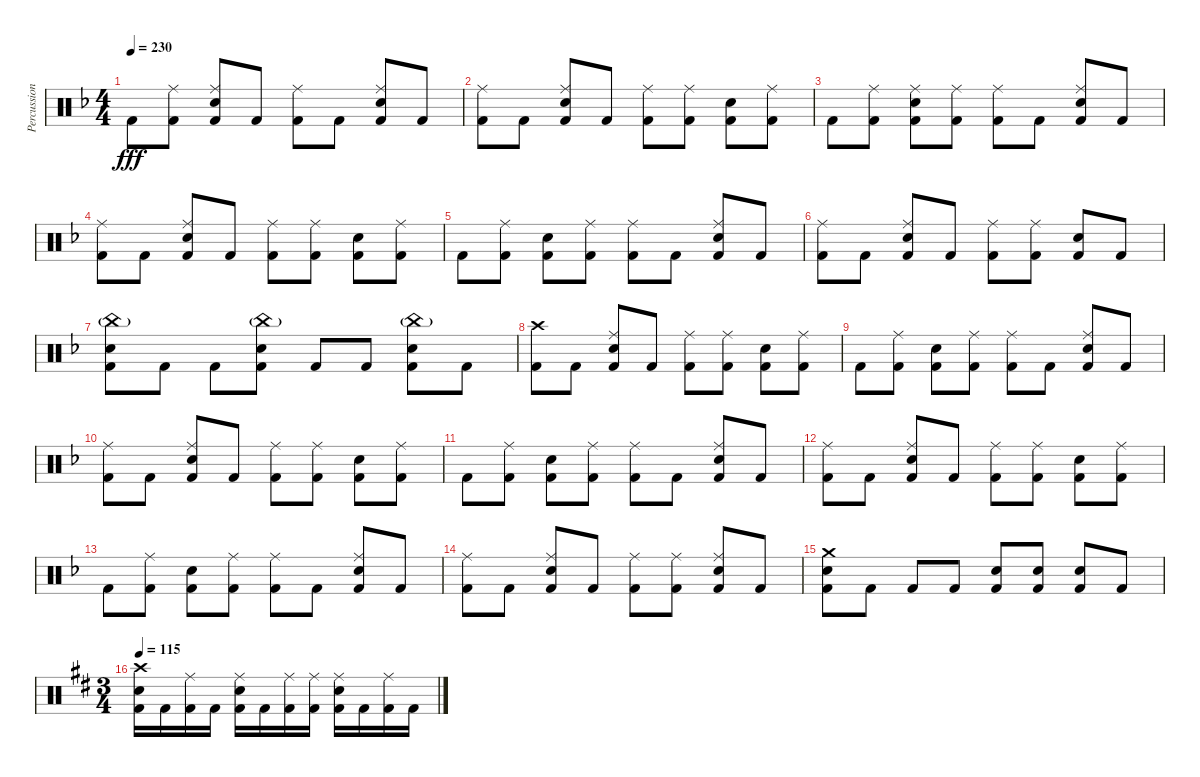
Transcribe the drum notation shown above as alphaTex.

\track ("Percussion" "Percussion") {instrument percussion}
\staff {score}
\articulation defaults
\ts (4 4)
\tempo 230
\clef neutral
\ks dminor "Kick (hit) 2".8{dy fff}
("Ride (middle)" "Kick (hit) 2").8 ("Ride (middle)" "Electric Snare (hit)" "Kick (hit) 2").8 "Kick (hit) 2".8 ("Ride (middle)" "Kick (hit) 2").8 "Kick (hit) 2".8 ("Ride (middle)" "Electric Snare (hit)" "Kick (hit) 2").8 "Kick (hit) 2".8 |
("Ride (middle)" "Kick (hit) 2").8 "Kick (hit) 2".8 ("Ride (middle)" "Electric Snare (hit)" "Kick (hit) 2").8 "Kick (hit) 2".8 ("Ride (middle)" "Kick (hit) 2").8 ("Ride (middle)" "Kick (hit) 2").8 ("Electric Snare (hit)" "Kick (hit) 2").8 ("Ride (middle)" "Kick (hit) 2").8 |
"Kick (hit) 2".8 ("Ride (middle)" "Kick (hit) 2").8 ("Ride (middle)" "Electric Snare (hit)" "Kick (hit) 2").8 ("Ride (middle)" "Kick (hit) 2").8 ("Ride (middle)" "Kick (hit) 2").8 "Kick (hit) 2".8 ("Ride (middle)" "Electric Snare (hit)" "Kick (hit) 2").8 "Kick (hit) 2".8 |
("Ride (middle)" "Kick (hit) 2").8 "Kick (hit) 2".8 ("Ride (middle)" "Electric Snare (hit)" "Kick (hit) 2").8 "Kick (hit) 2".8 ("Ride (middle)" "Kick (hit) 2").8 ("Ride (middle)" "Kick (hit) 2").8 ("Electric Snare (hit)" "Kick (hit) 2").8 ("Ride (middle)" "Kick (hit) 2").8 |
"Kick (hit) 2".8 ("Ride (middle)" "Kick (hit) 2").8 ("Electric Snare (hit)" "Kick (hit) 2").8 ("Ride (middle)" "Kick (hit) 2").8 ("Ride (middle)" "Kick (hit) 2").8 "Kick (hit) 2".8 ("Ride (middle)" "Electric Snare (hit)" "Kick (hit) 2").8 "Kick (hit) 2".8 |
("Ride (middle)" "Kick (hit) 2").8 "Kick (hit) 2".8 ("Ride (middle)" "Electric Snare (hit)" "Kick (hit) 2").8 "Kick (hit) 2".8 ("Ride (middle)" "Kick (hit) 2").8 ("Ride (middle)" "Kick (hit) 2").8 ("Electric Snare (hit)" "Kick (hit) 2").8 "Kick (hit) 2".8 |
("China (hit)"{g} "Electric Snare (hit)" "Kick (hit) 2").8 "Kick (hit) 2".8 "Kick (hit) 2".8 ("China (hit)"{g} "Electric Snare (hit)" "Kick (hit) 2").8 "Kick (hit) 2".8 "Kick (hit) 2".8 ("China (hit)"{g} "Electric Snare (hit)" "Kick (hit) 2").8 "Kick (hit) 2".8 |
("Crash high (hit)" "Kick (hit) 2").8 "Kick (hit) 2".8 ("Ride (middle)" "Electric Snare (hit)" "Kick (hit) 2").8 "Kick (hit) 2".8 ("Ride (middle)" "Kick (hit) 2").8 ("Ride (middle)" "Kick (hit) 2").8 ("Electric Snare (hit)" "Kick (hit) 2").8 ("Ride (middle)" "Kick (hit) 2").8 |
"Kick (hit) 2".8 ("Ride (middle)" "Kick (hit) 2").8 ("Electric Snare (hit)" "Kick (hit) 2").8 ("Ride (middle)" "Kick (hit) 2").8 ("Ride (middle)" "Kick (hit) 2").8 "Kick (hit) 2".8 ("Ride (middle)" "Electric Snare (hit)" "Kick (hit) 2").8 "Kick (hit) 2".8 |
("Ride (middle)" "Kick (hit) 2").8 "Kick (hit) 2".8 ("Ride (middle)" "Electric Snare (hit)" "Kick (hit) 2").8 "Kick (hit) 2".8 ("Ride (middle)" "Kick (hit) 2").8 ("Ride (middle)" "Kick (hit) 2").8 ("Electric Snare (hit)" "Kick (hit) 2").8 ("Ride (middle)" "Kick (hit) 2").8 |
"Kick (hit) 2".8 ("Ride (middle)" "Kick (hit) 2").8 ("Electric Snare (hit)" "Kick (hit) 2").8 ("Ride (middle)" "Kick (hit) 2").8 ("Ride (middle)" "Kick (hit) 2").8 "Kick (hit) 2".8 ("Ride (middle)" "Electric Snare (hit)" "Kick (hit) 2").8 "Kick (hit) 2".8 |
("Ride (middle)" "Kick (hit) 2").8 "Kick (hit) 2".8 ("Ride (middle)" "Electric Snare (hit)" "Kick (hit) 2").8 "Kick (hit) 2".8 ("Ride (middle)" "Kick (hit) 2").8 ("Ride (middle)" "Kick (hit) 2").8 ("Electric Snare (hit)" "Kick (hit) 2").8 ("Ride (middle)" "Kick (hit) 2").8 |
"Kick (hit) 2".8 ("Ride (middle)" "Kick (hit) 2").8 ("Electric Snare (hit)" "Kick (hit) 2").8 ("Ride (middle)" "Kick (hit) 2").8 ("Ride (middle)" "Kick (hit) 2").8 "Kick (hit) 2".8 ("Ride (middle)" "Electric Snare (hit)" "Kick (hit) 2").8 "Kick (hit) 2".8 |
("Ride (middle)" "Kick (hit) 2").8 "Kick (hit) 2".8 ("Ride (middle)" "Electric Snare (hit)" "Kick (hit) 2").8 "Kick (hit) 2".8 ("Ride (middle)" "Kick (hit) 2").8 ("Ride (middle)" "Kick (hit) 2").8 ("Ride (middle)" "Electric Snare (hit)" "Kick (hit) 2").8 "Kick (hit) 2".8 |
("Crash medium (hit)" "Electric Snare (hit)" "Kick (hit) 2").8 "Kick (hit) 2".8 "Kick (hit) 2".8 "Kick (hit) 2".8 ("Electric Snare (hit)" "Kick (hit) 2").8 ("Electric Snare (hit)" "Kick (hit) 2").8 ("Electric Snare (hit)" "Kick (hit) 2").8 "Kick (hit) 2".8 |
\ts (3 4)
\tempo 115
\ks bminor
("Crash high (hit)" "Electric Snare (hit)" "Kick (hit) 2").16 "Kick (hit) 2".16 ("Ride (middle)" "Kick (hit) 2").16 "Kick (hit) 2".16 ("Ride (middle)" "Electric Snare (hit)" "Kick (hit) 2").16 "Kick (hit) 2".16 ("Ride (middle)" "Kick (hit) 2").16 ("Ride (middle)" "Kick (hit) 2").16 ("Ride (middle)" "Electric Snare (hit)" "Kick (hit) 2").16 "Kick (hit) 2".16 ("Ride (middle)" "Kick (hit) 2").16 "Kick (hit) 2".16
